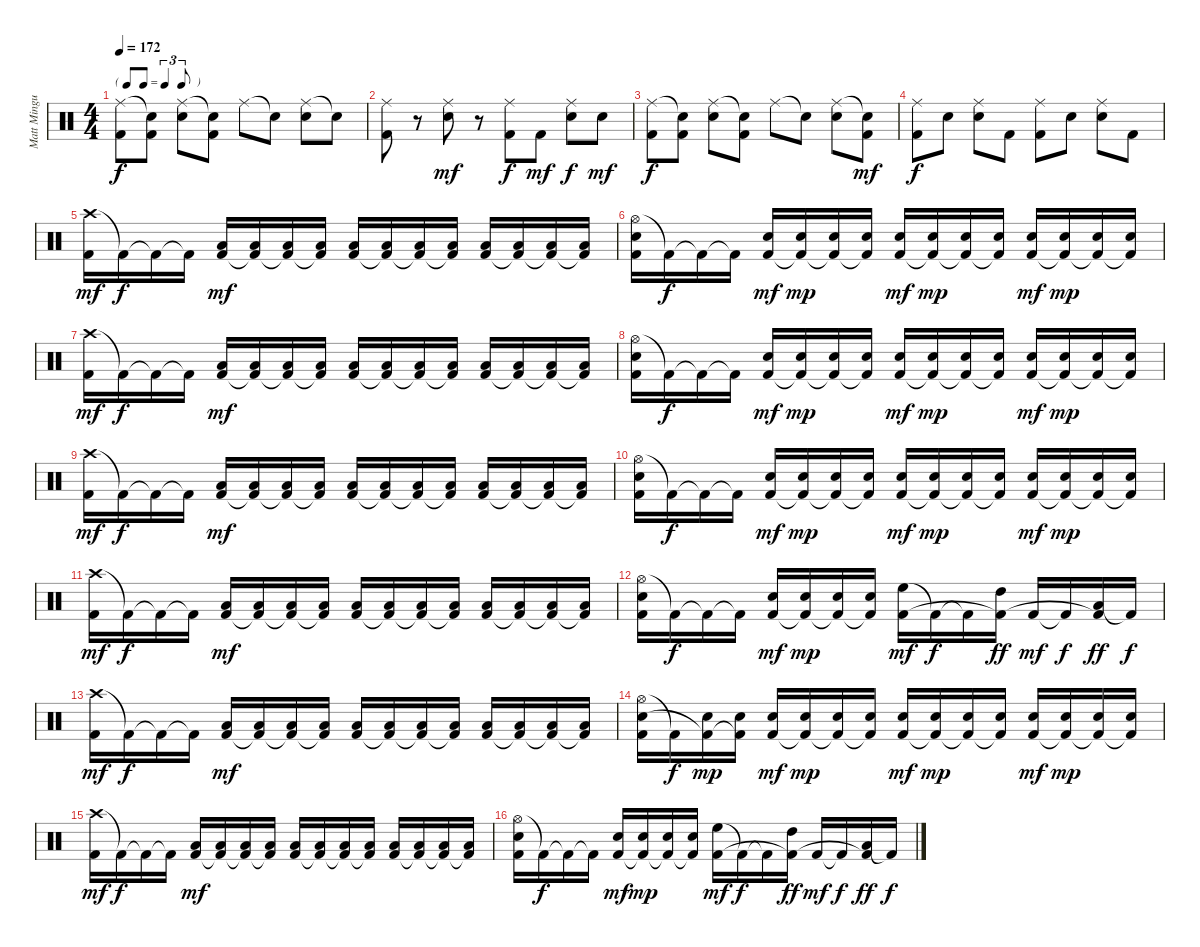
\track ("Matt Mingus" "Matt Mingu") {instrument percussion}
\staff {score}
\articulation defaults
\ts (4 4)
\tf triplet8th
\tempo 172
\clef neutral
\ks c
("Ride (middle)" "Kick (hit) 2").8{dy f} ("Snare (hit)"{t} "Kick (hit) 2").8 ("Ride (middle)" "Electric Snare (hit)").8 ("Snare (hit)"{t} "Kick (hit) 2").8 "Ride (middle)".8 "Snare (hit)"{t}.8 ("Ride (middle)" "Electric Snare (hit)").8 "Snare (hit)"{t}.8 |
("Ride (middle)" "Kick (hit) 2").8 r.8 ("Ride (middle)" "Electric Snare (hit)").8{dy mf} r.8 ("Ride (middle)" "Kick (hit) 2").8{dy f} "Kick (hit) 2".8{dy mf} ("Ride (middle)" "Electric Snare (hit)").8{dy f} "Electric Snare (hit)".8{dy mf} |
("Ride (middle)" "Kick (hit) 2").8{dy f} ("Snare (hit)"{t} "Kick (hit) 2").8 ("Ride (middle)" "Electric Snare (hit)").8 ("Snare (hit)"{t} "Kick (hit) 2").8 "Ride (middle)".8 "Snare (hit)"{t}.8 ("Ride (middle)" "Electric Snare (hit)").8 ("Snare (hit)"{t} "Kick (hit) 2").8{dy mf} |
("Ride (middle)" "Kick (hit) 2").8{dy f} "Electric Snare (hit)".8 ("Ride (middle)" "Electric Snare (hit)").8 "Kick (hit) 2".8 ("Ride (middle)" "Kick (hit) 2").8 "Electric Snare (hit)".8 ("Ride (middle)" "Electric Snare (hit)").8 "Kick (hit) 2".8 |
("Crash high (hit)" "Kick (hit) 2").16{dy mf} "Kick (hit) 2"{t}.16{dy f} "Kick (hit) 2"{t}.16 "Kick (hit) 2"{t}.16 ("Low Floor Tom (hit)" "Kick (hit) 2").16{dy mf} ("Low Floor Tom (hit)" "Kick (hit) 2"{t}).16 ("Low Floor Tom (hit)" "Kick (hit) 2"{t}).16 ("Low Floor Tom (hit)" "Kick (hit) 2"{t}).16 ("Low Floor Tom (hit)" "Kick (hit) 2").16 ("Low Floor Tom (hit)" "Kick (hit) 2"{t}).16 ("Low Floor Tom (hit)" "Kick (hit) 2"{t}).16 ("Low Floor Tom (hit)" "Kick (hit) 2"{t}).16 ("Low Floor Tom (hit)" "Kick (hit) 2").16 ("Low Floor Tom (hit)" "Kick (hit) 2"{t}).16 ("Low Floor Tom (hit)" "Kick (hit) 2"{t}).16 ("Low Floor Tom (hit)" "Kick (hit) 2"{t}).16 |
("Hi-Hat (open)" "Electric Snare (hit)" "Kick (hit) 2").16 "Kick (hit) 2"{t}.16{dy f} "Kick (hit) 2"{t}.16 "Kick (hit) 2"{t}.16 ("Electric Snare (hit)" "Kick (hit) 2").16{dy mf} ("Electric Snare (hit)" "Kick (hit) 2"{t}).16{dy mp} ("Electric Snare (hit)" "Kick (hit) 2"{t}).16 ("Electric Snare (hit)" "Kick (hit) 2"{t}).16 ("Electric Snare (hit)" "Kick (hit) 2").16{dy mf} ("Electric Snare (hit)" "Kick (hit) 2"{t}).16{dy mp} ("Electric Snare (hit)" "Kick (hit) 2"{t}).16 ("Electric Snare (hit)" "Kick (hit) 2"{t}).16 ("Electric Snare (hit)" "Kick (hit) 2").16{dy mf} ("Electric Snare (hit)" "Kick (hit) 2"{t}).16{dy mp} ("Electric Snare (hit)" "Kick (hit) 2"{t}).16 ("Electric Snare (hit)" "Kick (hit) 2"{t}).16 |
("Crash high (hit)" "Kick (hit) 2").16{dy mf} "Kick (hit) 2"{t}.16{dy f} "Kick (hit) 2"{t}.16 "Kick (hit) 2"{t}.16 ("Low Floor Tom (hit)" "Kick (hit) 2").16{dy mf} ("Low Floor Tom (hit)" "Kick (hit) 2"{t}).16 ("Low Floor Tom (hit)" "Kick (hit) 2"{t}).16 ("Low Floor Tom (hit)" "Kick (hit) 2"{t}).16 ("Low Floor Tom (hit)" "Kick (hit) 2").16 ("Low Floor Tom (hit)" "Kick (hit) 2"{t}).16 ("Low Floor Tom (hit)" "Kick (hit) 2"{t}).16 ("Low Floor Tom (hit)" "Kick (hit) 2"{t}).16 ("Low Floor Tom (hit)" "Kick (hit) 2").16 ("Low Floor Tom (hit)" "Kick (hit) 2"{t}).16 ("Low Floor Tom (hit)" "Kick (hit) 2"{t}).16 ("Low Floor Tom (hit)" "Kick (hit) 2"{t}).16 |
("Hi-Hat (open)" "Electric Snare (hit)" "Kick (hit) 2").16 "Kick (hit) 2"{t}.16{dy f} "Kick (hit) 2"{t}.16 "Kick (hit) 2"{t}.16 ("Electric Snare (hit)" "Kick (hit) 2").16{dy mf} ("Electric Snare (hit)" "Kick (hit) 2"{t}).16{dy mp} ("Electric Snare (hit)" "Kick (hit) 2"{t}).16 ("Electric Snare (hit)" "Kick (hit) 2"{t}).16 ("Electric Snare (hit)" "Kick (hit) 2").16{dy mf} ("Electric Snare (hit)" "Kick (hit) 2"{t}).16{dy mp} ("Electric Snare (hit)" "Kick (hit) 2"{t}).16 ("Electric Snare (hit)" "Kick (hit) 2"{t}).16 ("Electric Snare (hit)" "Kick (hit) 2").16{dy mf} ("Electric Snare (hit)" "Kick (hit) 2"{t}).16{dy mp} ("Electric Snare (hit)" "Kick (hit) 2"{t}).16 ("Electric Snare (hit)" "Kick (hit) 2"{t}).16 |
("Crash high (hit)" "Kick (hit) 2").16{dy mf} "Kick (hit) 2"{t}.16{dy f} "Kick (hit) 2"{t}.16 "Kick (hit) 2"{t}.16 ("Low Floor Tom (hit)" "Kick (hit) 2").16{dy mf} ("Low Floor Tom (hit)" "Kick (hit) 2"{t}).16 ("Low Floor Tom (hit)" "Kick (hit) 2"{t}).16 ("Low Floor Tom (hit)" "Kick (hit) 2"{t}).16 ("Low Floor Tom (hit)" "Kick (hit) 2").16 ("Low Floor Tom (hit)" "Kick (hit) 2"{t}).16 ("Low Floor Tom (hit)" "Kick (hit) 2"{t}).16 ("Low Floor Tom (hit)" "Kick (hit) 2"{t}).16 ("Low Floor Tom (hit)" "Kick (hit) 2").16 ("Low Floor Tom (hit)" "Kick (hit) 2"{t}).16 ("Low Floor Tom (hit)" "Kick (hit) 2"{t}).16 ("Low Floor Tom (hit)" "Kick (hit) 2"{t}).16 |
("Hi-Hat (open)" "Electric Snare (hit)" "Kick (hit) 2").16 "Kick (hit) 2"{t}.16{dy f} "Kick (hit) 2"{t}.16 "Kick (hit) 2"{t}.16 ("Electric Snare (hit)" "Kick (hit) 2").16{dy mf} ("Electric Snare (hit)" "Kick (hit) 2"{t}).16{dy mp} ("Electric Snare (hit)" "Kick (hit) 2"{t}).16 ("Electric Snare (hit)" "Kick (hit) 2"{t}).16 ("Electric Snare (hit)" "Kick (hit) 2").16{dy mf} ("Electric Snare (hit)" "Kick (hit) 2"{t}).16{dy mp} ("Electric Snare (hit)" "Kick (hit) 2"{t}).16 ("Electric Snare (hit)" "Kick (hit) 2"{t}).16 ("Electric Snare (hit)" "Kick (hit) 2").16{dy mf} ("Electric Snare (hit)" "Kick (hit) 2"{t}).16{dy mp} ("Electric Snare (hit)" "Kick (hit) 2"{t}).16 ("Electric Snare (hit)" "Kick (hit) 2"{t}).16 |
("Crash high (hit)" "Kick (hit) 2").16{dy mf} "Kick (hit) 2"{t}.16{dy f} "Kick (hit) 2"{t}.16 "Kick (hit) 2"{t}.16 ("Low Floor Tom (hit)" "Kick (hit) 2").16{dy mf} ("Low Floor Tom (hit)" "Kick (hit) 2"{t}).16 ("Low Floor Tom (hit)" "Kick (hit) 2"{t}).16 ("Low Floor Tom (hit)" "Kick (hit) 2"{t}).16 ("Low Floor Tom (hit)" "Kick (hit) 2").16 ("Low Floor Tom (hit)" "Kick (hit) 2"{t}).16 ("Low Floor Tom (hit)" "Kick (hit) 2"{t}).16 ("Low Floor Tom (hit)" "Kick (hit) 2"{t}).16 ("Low Floor Tom (hit)" "Kick (hit) 2").16 ("Low Floor Tom (hit)" "Kick (hit) 2"{t}).16 ("Low Floor Tom (hit)" "Kick (hit) 2"{t}).16 ("Low Floor Tom (hit)" "Kick (hit) 2"{t}).16 |
("Hi-Hat (open)" "Electric Snare (hit)" "Kick (hit) 2").16 "Kick (hit) 2"{t}.16{dy f} "Kick (hit) 2"{t}.16 "Kick (hit) 2"{t}.16 ("Electric Snare (hit)" "Kick (hit) 2").16{dy mf} ("Electric Snare (hit)" "Kick (hit) 2"{t}).16{dy mp} ("Electric Snare (hit)" "Kick (hit) 2"{t}).16 ("Electric Snare (hit)" "Kick (hit) 2"{t}).16 ("High Floor Tom (hit)" "Kick (hit) 2").16{dy mf} "Kick (hit) 2"{t}.16{dy f} "Kick (hit) 2"{t}.16 ("High Tom (hit)" "Kick (hit) 2"{t}).16{dy ff} "Kick (hit) 2".16{dy mf} "Kick (hit) 2"{t}.16{dy f} ("Low Floor Tom (hit)" "Kick (hit) 2"{t}).16{dy ff} "Kick (hit) 2"{t}.16{dy f} |
("Crash high (hit)" "Kick (hit) 2").16{dy mf} "Kick (hit) 2"{t}.16{dy f} "Kick (hit) 2"{t}.16 "Kick (hit) 2"{t}.16 ("Low Floor Tom (hit)" "Kick (hit) 2").16{dy mf} ("Low Floor Tom (hit)" "Kick (hit) 2"{t}).16 ("Low Floor Tom (hit)" "Kick (hit) 2"{t}).16 ("Low Floor Tom (hit)" "Kick (hit) 2"{t}).16 ("Low Floor Tom (hit)" "Kick (hit) 2").16 ("Low Floor Tom (hit)" "Kick (hit) 2"{t}).16 ("Low Floor Tom (hit)" "Kick (hit) 2"{t}).16 ("Low Floor Tom (hit)" "Kick (hit) 2"{t}).16 ("Low Floor Tom (hit)" "Kick (hit) 2").16 ("Low Floor Tom (hit)" "Kick (hit) 2"{t}).16 ("Low Floor Tom (hit)" "Kick (hit) 2"{t}).16 ("Low Floor Tom (hit)" "Kick (hit) 2"{t}).16 |
("Hi-Hat (open)" "Electric Snare (hit)" "Kick (hit) 2").16 "Kick (hit) 2"{t}.16{dy f} ("Electric Snare (hit)" "Kick (hit) 2"{t}).16{dy mp} ("Electric Snare (hit)" "Kick (hit) 2"{t}).16 ("Electric Snare (hit)" "Kick (hit) 2").16{dy mf} ("Electric Snare (hit)" "Kick (hit) 2"{t}).16{dy mp} ("Electric Snare (hit)" "Kick (hit) 2"{t}).16 ("Electric Snare (hit)" "Kick (hit) 2"{t}).16 ("Electric Snare (hit)" "Kick (hit) 2").16{dy mf} ("Electric Snare (hit)" "Kick (hit) 2"{t}).16{dy mp} ("Electric Snare (hit)" "Kick (hit) 2"{t}).16 ("Electric Snare (hit)" "Kick (hit) 2"{t}).16 ("Electric Snare (hit)" "Kick (hit) 2").16{dy mf} ("Electric Snare (hit)" "Kick (hit) 2"{t}).16{dy mp} ("Electric Snare (hit)" "Kick (hit) 2"{t}).16 ("Electric Snare (hit)" "Kick (hit) 2"{t}).16 |
("Crash high (hit)" "Kick (hit) 2").16{dy mf} "Kick (hit) 2"{t}.16{dy f} "Kick (hit) 2"{t}.16 "Kick (hit) 2"{t}.16 ("Low Floor Tom (hit)" "Kick (hit) 2").16{dy mf} ("Low Floor Tom (hit)" "Kick (hit) 2"{t}).16 ("Low Floor Tom (hit)" "Kick (hit) 2"{t}).16 ("Low Floor Tom (hit)" "Kick (hit) 2"{t}).16 ("Low Floor Tom (hit)" "Kick (hit) 2").16 ("Low Floor Tom (hit)" "Kick (hit) 2"{t}).16 ("Low Floor Tom (hit)" "Kick (hit) 2"{t}).16 ("Low Floor Tom (hit)" "Kick (hit) 2"{t}).16 ("Low Floor Tom (hit)" "Kick (hit) 2").16 ("Low Floor Tom (hit)" "Kick (hit) 2"{t}).16 ("Low Floor Tom (hit)" "Kick (hit) 2"{t}).16 ("Low Floor Tom (hit)" "Kick (hit) 2"{t}).16 |
("Hi-Hat (open)" "Electric Snare (hit)" "Kick (hit) 2").16 "Kick (hit) 2"{t}.16{dy f} "Kick (hit) 2"{t}.16 "Kick (hit) 2"{t}.16 ("Electric Snare (hit)" "Kick (hit) 2").16{dy mf} ("Electric Snare (hit)" "Kick (hit) 2"{t}).16{dy mp} ("Electric Snare (hit)" "Kick (hit) 2"{t}).16 ("Electric Snare (hit)" "Kick (hit) 2"{t}).16 ("High Floor Tom (hit)" "Kick (hit) 2").16{dy mf} "Kick (hit) 2"{t}.16{dy f} "Kick (hit) 2"{t}.16 ("High Tom (hit)" "Kick (hit) 2"{t}).16{dy ff} "Kick (hit) 2".16{dy mf} "Kick (hit) 2"{t}.16{dy f} ("Low Floor Tom (hit)" "Kick (hit) 2"{t}).16{dy ff} "Kick (hit) 2"{t}.16{dy f}
